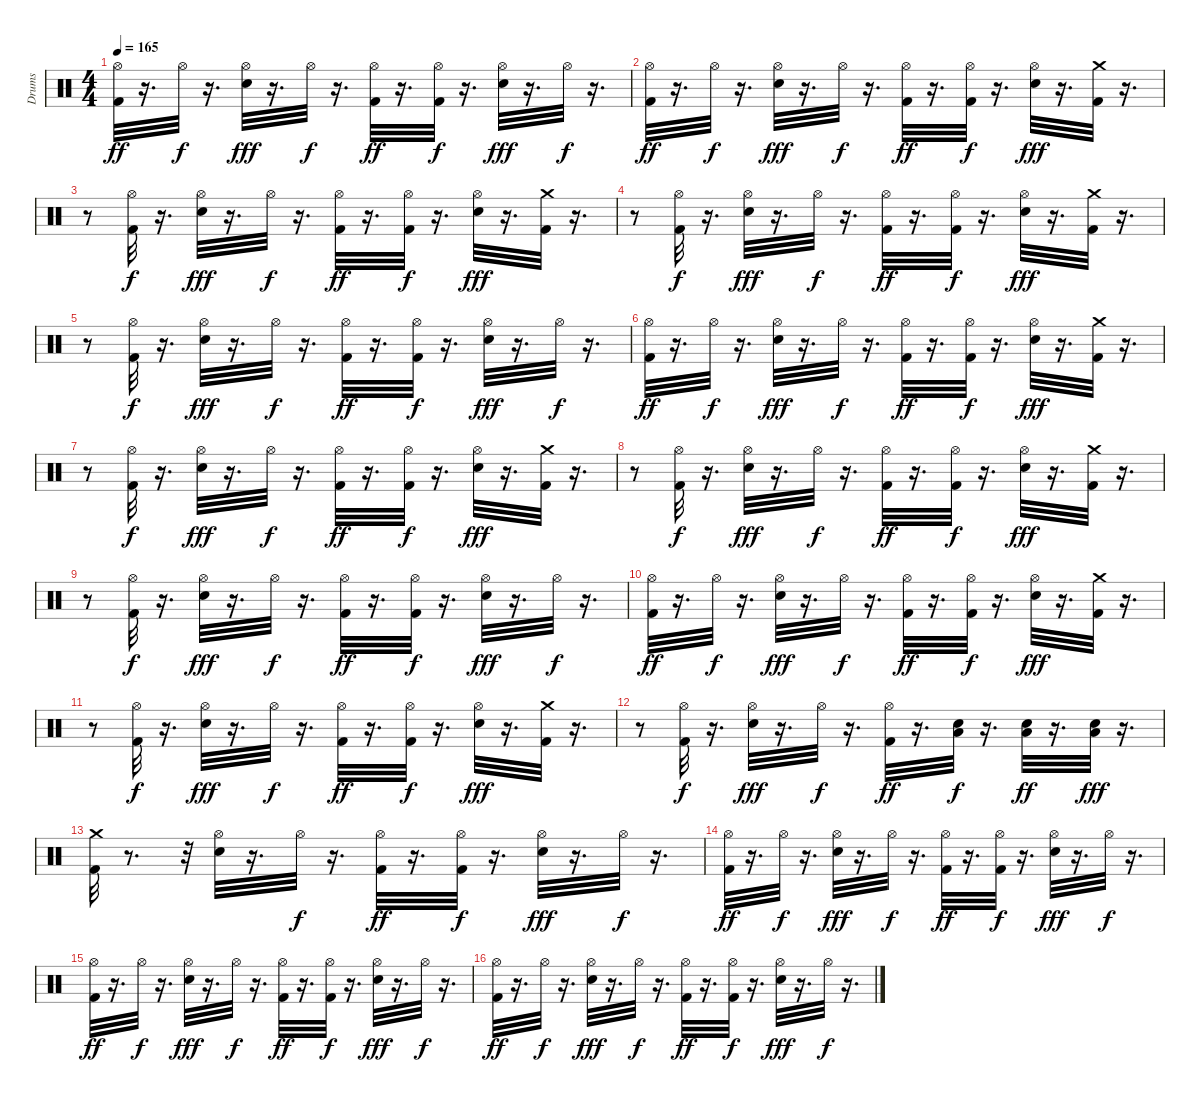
\track ("Drums" "Drums") {instrument percussion}
\staff {score}
\articulation defaults
\ts (4 4)
\tempo 165
\clef neutral
\ks c
("Kick (hit) 2" "Hi-Hat (open)").32{dy ff} r.16{d} "Hi-Hat (open)".32{dy f} r.16{d} ("Snare (hit) 2" "Hi-Hat (open)").32{dy fff} r.16{d} "Hi-Hat (open)".32{dy f} r.16{d} ("Kick (hit) 2" "Hi-Hat (open)").32{dy ff} r.16{d} ("Kick (hit) 2" "Hi-Hat (open)").32{dy f} r.16{d} ("Snare (hit) 2" "Hi-Hat (open)").32{dy fff} r.16{d} "Hi-Hat (open)".32{dy f} r.16{d} |
("Kick (hit) 2" "Hi-Hat (open)").32{dy ff} r.16{d} "Hi-Hat (open)".32{dy f} r.16{d} ("Snare (hit) 2" "Hi-Hat (open)").32{dy fff} r.16{d} "Hi-Hat (open)".32{dy f} r.16{d} ("Kick (hit) 2" "Hi-Hat (open)").32{dy ff} r.16{d} ("Hi-Hat (open)" "Kick (hit) 2").32{dy f} r.16{d} ("Snare (hit) 2" "Hi-Hat (open)").32{dy fff} r.16{d} ("Kick (hit) 2" "Crash medium (hit)").32 r.16{d} |
r.8 ("Kick (hit) 2" "Hi-Hat (open)").32{dy f} r.16{d} ("Snare (hit) 2" "Hi-Hat (open)").32{dy fff} r.16{d} "Hi-Hat (open)".32{dy f} r.16{d} ("Kick (hit) 2" "Hi-Hat (open)").32{dy ff} r.16{d} ("Kick (hit) 2" "Hi-Hat (open)").32{dy f} r.16{d} ("Snare (hit) 2" "Hi-Hat (open)").32{dy fff} r.16{d} ("Kick (hit) 2" "Crash medium (hit)").32 r.16{d} |
r.8 ("Kick (hit) 2" "Hi-Hat (open)").32{dy f} r.16{d} ("Snare (hit) 2" "Hi-Hat (open)").32{dy fff} r.16{d} "Hi-Hat (open)".32{dy f} r.16{d} ("Kick (hit) 2" "Hi-Hat (open)").32{dy ff} r.16{d} ("Kick (hit) 2" "Hi-Hat (open)").32{dy f} r.16{d} ("Snare (hit) 2" "Hi-Hat (open)").32{dy fff} r.16{d} ("Kick (hit) 2" "Crash medium (hit)").32 r.16{d} |
r.8 ("Kick (hit) 2" "Hi-Hat (open)").32{dy f} r.16{d} ("Snare (hit) 2" "Hi-Hat (open)").32{dy fff} r.16{d} "Hi-Hat (open)".32{dy f} r.16{d} ("Kick (hit) 2" "Hi-Hat (open)").32{dy ff} r.16{d} ("Kick (hit) 2" "Hi-Hat (open)").32{dy f} r.16{d} ("Snare (hit) 2" "Hi-Hat (open)").32{dy fff} r.16{d} "Hi-Hat (open)".32{dy f} r.16{d} |
("Kick (hit) 2" "Hi-Hat (open)").32{dy ff} r.16{d} "Hi-Hat (open)".32{dy f} r.16{d} ("Snare (hit) 2" "Hi-Hat (open)").32{dy fff} r.16{d} "Hi-Hat (open)".32{dy f} r.16{d} ("Kick (hit) 2" "Hi-Hat (open)").32{dy ff} r.16{d} ("Kick (hit) 2" "Hi-Hat (open)").32{dy f} r.16{d} ("Snare (hit) 2" "Hi-Hat (open)").32{dy fff} r.16{d} ("Kick (hit) 2" "Crash medium (hit)").32 r.16{d} |
r.8 ("Kick (hit) 2" "Hi-Hat (open)").32{dy f} r.16{d} ("Snare (hit) 2" "Hi-Hat (open)").32{dy fff} r.16{d} "Hi-Hat (open)".32{dy f} r.16{d} ("Kick (hit) 2" "Hi-Hat (open)").32{dy ff} r.16{d} ("Kick (hit) 2" "Hi-Hat (open)").32{dy f} r.16{d} ("Snare (hit) 2" "Hi-Hat (open)").32{dy fff} r.16{d} ("Kick (hit) 2" "Crash medium (hit)").32 r.16{d} |
r.8 ("Kick (hit) 2" "Hi-Hat (open)").32{dy f} r.16{d} ("Snare (hit) 2" "Hi-Hat (open)").32{dy fff} r.16{d} "Hi-Hat (open)".32{dy f} r.16{d} ("Kick (hit) 2" "Hi-Hat (open)").32{dy ff} r.16{d} ("Kick (hit) 2" "Hi-Hat (open)").32{dy f} r.16{d} ("Snare (hit) 2" "Hi-Hat (open)").32{dy fff} r.16{d} ("Kick (hit) 2" "Crash medium (hit)").32 r.16{d} |
r.8 ("Kick (hit) 2" "Hi-Hat (open)").32{dy f} r.16{d} ("Snare (hit) 2" "Hi-Hat (open)").32{dy fff} r.16{d} "Hi-Hat (open)".32{dy f} r.16{d} ("Kick (hit) 2" "Hi-Hat (open)").32{dy ff} r.16{d} ("Kick (hit) 2" "Hi-Hat (open)").32{dy f} r.16{d} ("Snare (hit) 2" "Hi-Hat (open)").32{dy fff} r.16{d} "Hi-Hat (open)".32{dy f} r.16{d} |
("Kick (hit) 2" "Hi-Hat (open)").32{dy ff} r.16{d} "Hi-Hat (open)".32{dy f} r.16{d} ("Snare (hit) 2" "Hi-Hat (open)").32{dy fff} r.16{d} "Hi-Hat (open)".32{dy f} r.16{d} ("Kick (hit) 2" "Hi-Hat (open)").32{dy ff} r.16{d} ("Kick (hit) 2" "Hi-Hat (open)").32{dy f} r.16{d} ("Snare (hit) 2" "Hi-Hat (open)").32{dy fff} r.16{d} ("Kick (hit) 2" "Crash medium (hit)").32 r.16{d} |
r.8 ("Kick (hit) 2" "Hi-Hat (open)").32{dy f} r.16{d} ("Snare (hit) 2" "Hi-Hat (open)").32{dy fff} r.16{d} "Hi-Hat (open)".32{dy f} r.16{d} ("Kick (hit) 2" "Hi-Hat (open)").32{dy ff} r.16{d} ("Kick (hit) 2" "Hi-Hat (open)").32{dy f} r.16{d} ("Snare (hit) 2" "Hi-Hat (open)").32{dy fff} r.16{d} ("Kick (hit) 2" "Crash medium (hit)").32 r.16{d} |
r.8 ("Kick (hit) 2" "Hi-Hat (open)").32{dy f} r.16{d} ("Snare (hit) 2" "Hi-Hat (open)").32{dy fff} r.16{d} "Hi-Hat (open)".32{dy f} r.16{d} ("Kick (hit) 2" "Hi-Hat (open)").32{dy ff} r.16{d} ("Low Floor Tom (hit)" "Snare (hit) 2").32{dy f} r.16{d} ("Low Floor Tom (hit)" "Snare (hit) 2").32{dy ff} r.16{d} ("Low Floor Tom (hit)" "Snare (hit) 2").32{dy fff} r.16{d} |
("Kick (hit) 2" "Crash medium (hit)").32 r.8{d} r.32 ("Snare (hit) 2" "Hi-Hat (open)").32 r.16{d} "Hi-Hat (open)".32{dy f} r.16{d} ("Kick (hit) 2" "Hi-Hat (open)").32{dy ff} r.16{d} ("Kick (hit) 2" "Hi-Hat (open)").32{dy f} r.16{d} ("Snare (hit) 2" "Hi-Hat (open)").32{dy fff} r.16{d} "Hi-Hat (open)".32{dy f} r.16{d} |
("Kick (hit) 2" "Hi-Hat (open)").32{dy ff} r.16{d} "Hi-Hat (open)".32{dy f} r.16{d} ("Snare (hit) 2" "Hi-Hat (open)").32{dy fff} r.16{d} "Hi-Hat (open)".32{dy f} r.16{d} ("Kick (hit) 2" "Hi-Hat (open)").32{dy ff} r.16{d} ("Kick (hit) 2" "Hi-Hat (open)").32{dy f} r.16{d} ("Snare (hit) 2" "Hi-Hat (open)").32{dy fff} r.16{d} "Hi-Hat (open)".32{dy f} r.16{d} |
("Kick (hit) 2" "Hi-Hat (open)").32{dy ff} r.16{d} "Hi-Hat (open)".32{dy f} r.16{d} ("Snare (hit) 2" "Hi-Hat (open)").32{dy fff} r.16{d} "Hi-Hat (open)".32{dy f} r.16{d} ("Kick (hit) 2" "Hi-Hat (open)").32{dy ff} r.16{d} ("Kick (hit) 2" "Hi-Hat (open)").32{dy f} r.16{d} ("Snare (hit) 2" "Hi-Hat (open)").32{dy fff} r.16{d} "Hi-Hat (open)".32{dy f} r.16{d} |
("Kick (hit) 2" "Hi-Hat (open)").32{dy ff} r.16{d} "Hi-Hat (open)".32{dy f} r.16{d} ("Snare (hit) 2" "Hi-Hat (open)").32{dy fff} r.16{d} "Hi-Hat (open)".32{dy f} r.16{d} ("Kick (hit) 2" "Hi-Hat (open)").32{dy ff} r.16{d} ("Kick (hit) 2" "Hi-Hat (open)").32{dy f} r.16{d} ("Snare (hit) 2" "Hi-Hat (open)").32{dy fff} r.16{d} "Hi-Hat (open)".32{dy f} r.16{d}
